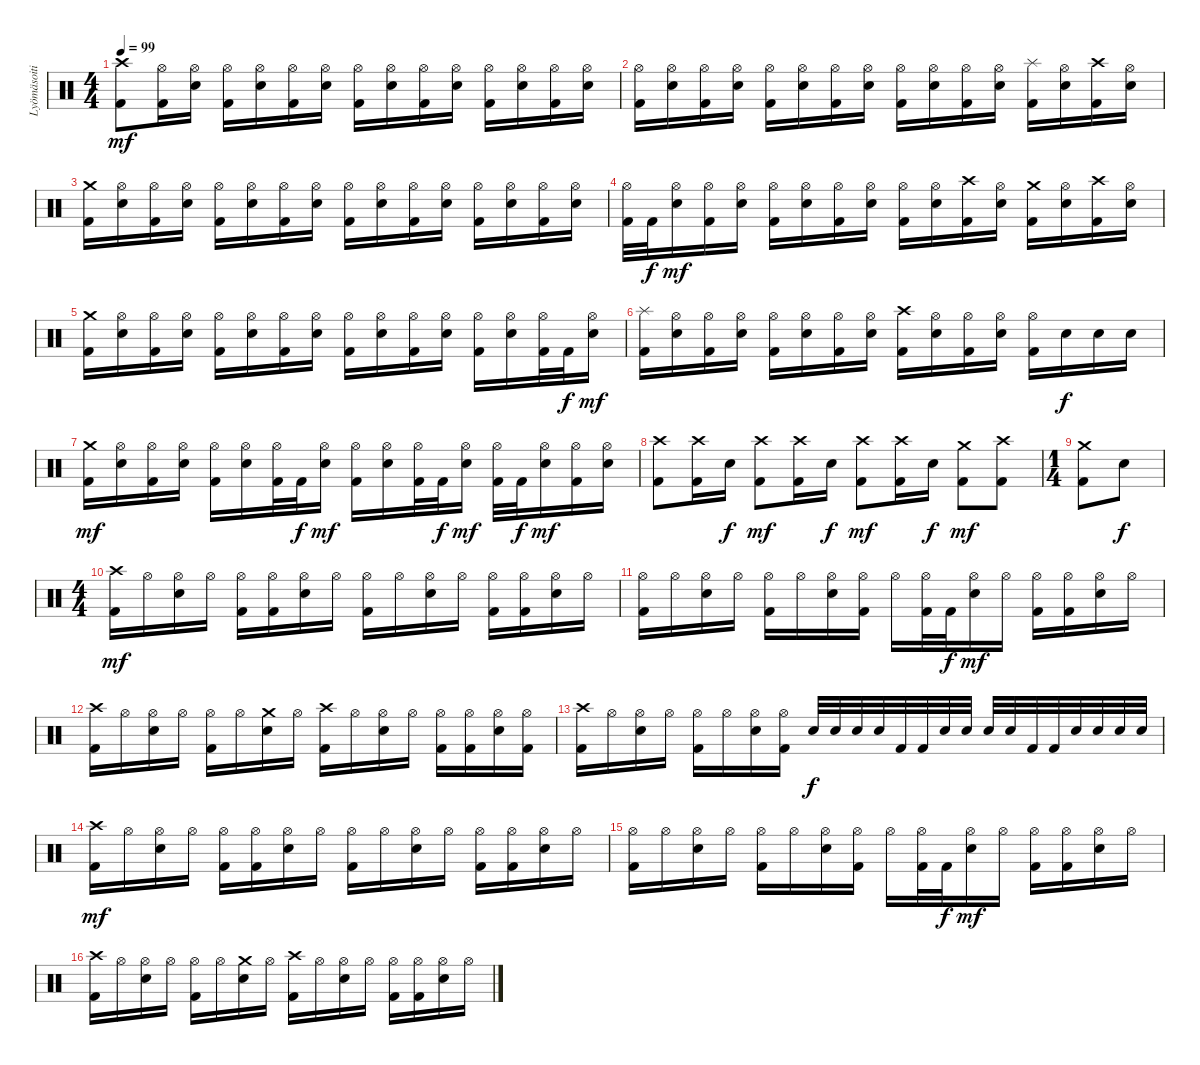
\track ("Lyömäsoitin" "Lyömäsoiti") {instrument percussion}
\staff {score}
\articulation defaults
\ts (4 4)
\tempo 99
\clef neutral
\ks c
("Crash high (hit)" "Kick (hit) 2").8{dy mf} ("Hi-Hat (open)" "Kick (hit) 2").16 ("Electric Snare (hit)" "Hi-Hat (open)").16 ("Hi-Hat (open)" "Kick (hit) 2").16 ("Electric Snare (hit)" "Hi-Hat (open)").16 ("Hi-Hat (open)" "Kick (hit) 2").16 ("Electric Snare (hit)" "Hi-Hat (open)").16 ("Hi-Hat (open)" "Kick (hit) 2").16 ("Electric Snare (hit)" "Hi-Hat (open)").16 ("Hi-Hat (open)" "Kick (hit) 2").16 ("Electric Snare (hit)" "Hi-Hat (open)").16 ("Hi-Hat (open)" "Kick (hit) 2").16 ("Electric Snare (hit)" "Hi-Hat (open)").16 ("Hi-Hat (open)" "Kick (hit) 2").16 ("Electric Snare (hit)" "Hi-Hat (open)").16 |
("Hi-Hat (open)" "Kick (hit) 2").16 ("Electric Snare (hit)" "Hi-Hat (open)").16 ("Hi-Hat (open)" "Kick (hit) 2").16 ("Electric Snare (hit)" "Hi-Hat (open)").16 ("Hi-Hat (open)" "Kick (hit) 2").16 ("Electric Snare (hit)" "Hi-Hat (open)").16 ("Hi-Hat (open)" "Kick (hit) 2").16 ("Electric Snare (hit)" "Hi-Hat (open)").16 ("Hi-Hat (open)" "Kick (hit) 2").16 ("Electric Snare (hit)" "Hi-Hat (open)").16 ("Hi-Hat (open)" "Kick (hit) 2").16 ("Electric Snare (hit)" "Hi-Hat (open)").16 ("Splash (hit)" "Kick (hit) 2").16 ("Electric Snare (hit)" "Hi-Hat (open)").16 ("Crash high (hit)" "Kick (hit) 2").16 ("Electric Snare (hit)" "Hi-Hat (open)").16 |
("Crash medium (hit)" "Kick (hit) 2").16 ("Electric Snare (hit)" "Hi-Hat (open)").16 ("Hi-Hat (open)" "Kick (hit) 2").16 ("Electric Snare (hit)" "Hi-Hat (open)").16 ("Hi-Hat (open)" "Kick (hit) 2").16 ("Electric Snare (hit)" "Hi-Hat (open)").16 ("Hi-Hat (open)" "Kick (hit) 2").16 ("Electric Snare (hit)" "Hi-Hat (open)").16 ("Hi-Hat (open)" "Kick (hit) 2").16 ("Electric Snare (hit)" "Hi-Hat (open)").16 ("Hi-Hat (open)" "Kick (hit) 2").16 ("Electric Snare (hit)" "Hi-Hat (open)").16 ("Hi-Hat (open)" "Kick (hit) 2").16 ("Electric Snare (hit)" "Hi-Hat (open)").16 ("Hi-Hat (open)" "Kick (hit) 2").16 ("Electric Snare (hit)" "Hi-Hat (open)").16 |
("Hi-Hat (open)" "Kick (hit) 2").32 "Kick (hit) 2".32{dy f} ("Electric Snare (hit)" "Hi-Hat (open)").16{dy mf} ("Hi-Hat (open)" "Kick (hit) 2").16 ("Electric Snare (hit)" "Hi-Hat (open)").16 ("Hi-Hat (open)" "Kick (hit) 2").16 ("Electric Snare (hit)" "Hi-Hat (open)").16 ("Hi-Hat (open)" "Kick (hit) 2").16 ("Electric Snare (hit)" "Hi-Hat (open)").16 ("Hi-Hat (open)" "Kick (hit) 2").16 ("Electric Snare (hit)" "Hi-Hat (open)").16 ("Crash high (hit)" "Kick (hit) 2").16 ("Electric Snare (hit)" "Hi-Hat (open)").16 ("Crash medium (hit)" "Kick (hit) 2").16 ("Electric Snare (hit)" "Hi-Hat (open)").16 ("Crash high (hit)" "Kick (hit) 2").16 ("Electric Snare (hit)" "Hi-Hat (open)").16 |
("Crash medium (hit)" "Kick (hit) 2").16 ("Electric Snare (hit)" "Hi-Hat (open)").16 ("Hi-Hat (open)" "Kick (hit) 2").16 ("Electric Snare (hit)" "Hi-Hat (open)").16 ("Hi-Hat (open)" "Kick (hit) 2").16 ("Electric Snare (hit)" "Hi-Hat (open)").16 ("Hi-Hat (open)" "Kick (hit) 2").16 ("Electric Snare (hit)" "Hi-Hat (open)").16 ("Hi-Hat (open)" "Kick (hit) 2").16 ("Electric Snare (hit)" "Hi-Hat (open)").16 ("Hi-Hat (open)" "Kick (hit) 2").16 ("Electric Snare (hit)" "Hi-Hat (open)").16 ("Hi-Hat (open)" "Kick (hit) 2").16 ("Electric Snare (hit)" "Hi-Hat (open)").16 ("Hi-Hat (open)" "Kick (hit) 2").32 "Kick (hit) 2".32{dy f} ("Electric Snare (hit)" "Hi-Hat (open)").16{dy mf} |
("Splash (hit)" "Kick (hit) 2").16 ("Electric Snare (hit)" "Hi-Hat (open)").16 ("Hi-Hat (open)" "Kick (hit) 2").16 ("Electric Snare (hit)" "Hi-Hat (open)").16 ("Hi-Hat (open)" "Kick (hit) 2").16 ("Electric Snare (hit)" "Hi-Hat (open)").16 ("Hi-Hat (open)" "Kick (hit) 2").16 ("Electric Snare (hit)" "Hi-Hat (open)").16 ("Crash high (hit)" "Kick (hit) 2").16 ("Electric Snare (hit)" "Hi-Hat (open)").16 ("Hi-Hat (open)" "Kick (hit) 2").16 ("Electric Snare (hit)" "Hi-Hat (open)").16 ("Hi-Hat (open)" "Kick (hit) 2").16 "Electric Snare (hit)".16{dy f} "Electric Snare (hit)".16 "Electric Snare (hit)".16 |
("Crash medium (hit)" "Kick (hit) 2").16{dy mf} ("Electric Snare (hit)" "Hi-Hat (open)").16 ("Hi-Hat (open)" "Kick (hit) 2").16 ("Electric Snare (hit)" "Hi-Hat (open)").16 ("Hi-Hat (open)" "Kick (hit) 2").16 ("Electric Snare (hit)" "Hi-Hat (open)").16 ("Hi-Hat (open)" "Kick (hit) 2").32 "Kick (hit) 2".32{dy f} ("Electric Snare (hit)" "Hi-Hat (open)").16{dy mf} ("Hi-Hat (open)" "Kick (hit) 2").16 ("Electric Snare (hit)" "Hi-Hat (open)").16 ("Hi-Hat (open)" "Kick (hit) 2").32 "Kick (hit) 2".32{dy f} ("Electric Snare (hit)" "Hi-Hat (open)").16{dy mf} ("Hi-Hat (open)" "Kick (hit) 2").32 "Kick (hit) 2".32{dy f} ("Electric Snare (hit)" "Hi-Hat (open)").16{dy mf} ("Hi-Hat (open)" "Kick (hit) 2").16 ("Electric Snare (hit)" "Hi-Hat (open)").16 |
("Crash high (hit)" "Kick (hit) 2").8 ("Crash high (hit)" "Kick (hit) 2").16 "Electric Snare (hit)".16{dy f} ("Crash high (hit)" "Kick (hit) 2").8{dy mf} ("Crash high (hit)" "Kick (hit) 2").16 "Electric Snare (hit)".16{dy f} ("Crash high (hit)" "Kick (hit) 2").8{dy mf} ("Crash high (hit)" "Kick (hit) 2").16 "Electric Snare (hit)".16{dy f} ("Crash medium (hit)" "Kick (hit) 2").8{dy mf} ("Crash high (hit)" "Kick (hit) 2").8 |
\ts (1 4)
("Crash medium (hit)" "Kick (hit) 2").8 "Electric Snare (hit)".8{dy f} |
\ts (4 4)
("Crash high (hit)" "Kick (hit) 2").16{dy mf} "Hi-Hat (open)".16 ("Electric Snare (hit)" "Hi-Hat (open)").16 "Hi-Hat (open)".16 ("Hi-Hat (open)" "Kick (hit) 2").16 ("Hi-Hat (open)" "Kick (hit) 2").16 ("Electric Snare (hit)" "Hi-Hat (open)").16 "Hi-Hat (open)".16 ("Hi-Hat (open)" "Kick (hit) 2").16 "Hi-Hat (open)".16 ("Electric Snare (hit)" "Hi-Hat (open)").16 "Hi-Hat (open)".16 ("Hi-Hat (open)" "Kick (hit) 2").16 ("Hi-Hat (open)" "Kick (hit) 2").16 ("Electric Snare (hit)" "Hi-Hat (open)").16 "Hi-Hat (open)".16 |
("Hi-Hat (open)" "Kick (hit) 2").16 "Hi-Hat (open)".16 ("Electric Snare (hit)" "Hi-Hat (open)").16 "Hi-Hat (open)".16 ("Hi-Hat (open)" "Kick (hit) 2").16 "Hi-Hat (open)".16 ("Electric Snare (hit)" "Hi-Hat (open)").16 ("Hi-Hat (open)" "Kick (hit) 2").16 "Hi-Hat (open)".16 ("Hi-Hat (open)" "Kick (hit) 2").32 "Kick (hit) 2".32{dy f} ("Electric Snare (hit)" "Hi-Hat (open)").16{dy mf} "Hi-Hat (open)".16 ("Hi-Hat (open)" "Kick (hit) 2").16 ("Hi-Hat (open)" "Kick (hit) 2").16 ("Electric Snare (hit)" "Hi-Hat (open)").16 "Hi-Hat (open)".16 |
("Crash high (hit)" "Kick (hit) 2").16 "Hi-Hat (open)".16 ("Electric Snare (hit)" "Hi-Hat (open)").16 "Hi-Hat (open)".16 ("Hi-Hat (open)" "Kick (hit) 2").16 "Hi-Hat (open)".16 ("Electric Snare (hit)" "Crash medium (hit)").16 "Hi-Hat (open)".16 ("Crash high (hit)" "Kick (hit) 2").16 "Hi-Hat (open)".16 ("Electric Snare (hit)" "Hi-Hat (open)").16 "Hi-Hat (open)".16 ("Hi-Hat (open)" "Kick (hit) 2").16 ("Hi-Hat (open)" "Kick (hit) 2").16 ("Electric Snare (hit)" "Hi-Hat (open)").16 ("Hi-Hat (open)" "Kick (hit) 2").16 |
("Crash high (hit)" "Kick (hit) 2").16 "Hi-Hat (open)".16 ("Electric Snare (hit)" "Hi-Hat (open)").16 "Hi-Hat (open)".16 ("Hi-Hat (open)" "Kick (hit) 2").16 "Hi-Hat (open)".16 ("Electric Snare (hit)" "Hi-Hat (open)").16 ("Hi-Hat (open)" "Kick (hit) 2").16 "Electric Snare (hit)".32{dy f} "Electric Snare (hit)".32 "Electric Snare (hit)".32 "Electric Snare (hit)".32 "Kick (hit) 2".32 "Kick (hit) 2".32 "Electric Snare (hit)".32 "Electric Snare (hit)".32 "Electric Snare (hit)".32 "Electric Snare (hit)".32 "Kick (hit) 2".32 "Kick (hit) 2".32 "Electric Snare (hit)".32 "Electric Snare (hit)".32 "Electric Snare (hit)".32 "Electric Snare (hit)".32 |
("Crash high (hit)" "Kick (hit) 2").16{dy mf} "Hi-Hat (open)".16 ("Electric Snare (hit)" "Hi-Hat (open)").16 "Hi-Hat (open)".16 ("Hi-Hat (open)" "Kick (hit) 2").16 ("Hi-Hat (open)" "Kick (hit) 2").16 ("Electric Snare (hit)" "Hi-Hat (open)").16 "Hi-Hat (open)".16 ("Hi-Hat (open)" "Kick (hit) 2").16 "Hi-Hat (open)".16 ("Electric Snare (hit)" "Hi-Hat (open)").16 "Hi-Hat (open)".16 ("Hi-Hat (open)" "Kick (hit) 2").16 ("Hi-Hat (open)" "Kick (hit) 2").16 ("Electric Snare (hit)" "Hi-Hat (open)").16 "Hi-Hat (open)".16 |
("Hi-Hat (open)" "Kick (hit) 2").16 "Hi-Hat (open)".16 ("Electric Snare (hit)" "Hi-Hat (open)").16 "Hi-Hat (open)".16 ("Hi-Hat (open)" "Kick (hit) 2").16 "Hi-Hat (open)".16 ("Electric Snare (hit)" "Hi-Hat (open)").16 ("Hi-Hat (open)" "Kick (hit) 2").16 "Hi-Hat (open)".16 ("Hi-Hat (open)" "Kick (hit) 2").32 "Kick (hit) 2".32{dy f} ("Electric Snare (hit)" "Hi-Hat (open)").16{dy mf} "Hi-Hat (open)".16 ("Hi-Hat (open)" "Kick (hit) 2").16 ("Hi-Hat (open)" "Kick (hit) 2").16 ("Electric Snare (hit)" "Hi-Hat (open)").16 "Hi-Hat (open)".16 |
("Crash high (hit)" "Kick (hit) 2").16 "Hi-Hat (open)".16 ("Electric Snare (hit)" "Hi-Hat (open)").16 "Hi-Hat (open)".16 ("Hi-Hat (open)" "Kick (hit) 2").16 "Hi-Hat (open)".16 ("Electric Snare (hit)" "Crash medium (hit)").16 "Hi-Hat (open)".16 ("Crash high (hit)" "Kick (hit) 2").16 "Hi-Hat (open)".16 ("Electric Snare (hit)" "Hi-Hat (open)").16 "Hi-Hat (open)".16 ("Hi-Hat (open)" "Kick (hit) 2").16 ("Hi-Hat (open)" "Kick (hit) 2").16 ("Electric Snare (hit)" "Hi-Hat (open)").16 "Hi-Hat (open)".16
